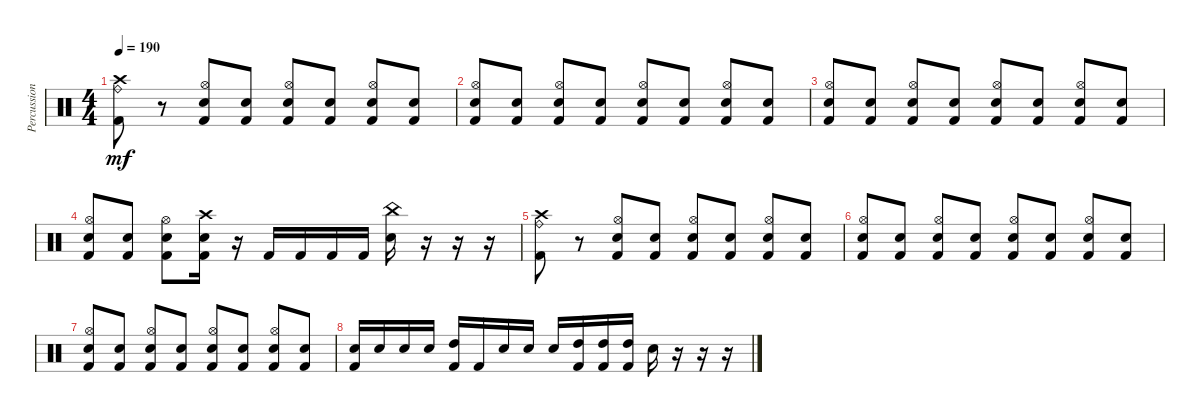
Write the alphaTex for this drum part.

\track ("Percussion" "Percussion") {instrument percussion}
\staff {score}
\articulation defaults
\ts (4 4)
\tempo 190
\clef neutral
\ks c
("Crash high (hit)" "Ride (bell)" "Kick (hit) 2").8{dy mf} r.8 ("Hi-Hat (open)" "Electric Snare (hit)" "Kick (hit) 2").8 ("Electric Snare (hit)" "Kick (hit) 2").8 ("Hi-Hat (open)" "Electric Snare (hit)" "Kick (hit) 2").8 ("Electric Snare (hit)" "Kick (hit) 2").8 ("Hi-Hat (open)" "Electric Snare (hit)" "Kick (hit) 2").8 ("Electric Snare (hit)" "Kick (hit) 2").8 |
("Hi-Hat (open)" "Electric Snare (hit)" "Kick (hit) 2").8 ("Electric Snare (hit)" "Kick (hit) 2").8 ("Hi-Hat (open)" "Electric Snare (hit)" "Kick (hit) 2").8 ("Electric Snare (hit)" "Kick (hit) 2").8 ("Hi-Hat (open)" "Electric Snare (hit)" "Kick (hit) 2").8 ("Electric Snare (hit)" "Kick (hit) 2").8 ("Hi-Hat (open)" "Electric Snare (hit)" "Kick (hit) 2").8 ("Electric Snare (hit)" "Kick (hit) 2").8 |
("Hi-Hat (open)" "Electric Snare (hit)" "Kick (hit) 2").8 ("Electric Snare (hit)" "Kick (hit) 2").8 ("Hi-Hat (open)" "Electric Snare (hit)" "Kick (hit) 2").8 ("Electric Snare (hit)" "Kick (hit) 2").8 ("Hi-Hat (open)" "Electric Snare (hit)" "Kick (hit) 2").8 ("Electric Snare (hit)" "Kick (hit) 2").8 ("Hi-Hat (open)" "Electric Snare (hit)" "Kick (hit) 2").8 ("Electric Snare (hit)" "Kick (hit) 2").8 |
("Hi-Hat (open)" "Electric Snare (hit)" "Kick (hit) 2").8 ("Electric Snare (hit)" "Kick (hit) 2").8 ("Hi-Hat (open)" "Electric Snare (hit)" "Kick (hit) 2").8 ("Crash high (hit)" "Electric Snare (hit)" "Kick (hit) 2").16 r.16 "Kick (hit) 2".16 "Kick (hit) 2".16 "Kick (hit) 2".16 "Kick (hit) 2".16 ("China (hit)" "Electric Snare (hit)").16 r.16 r.16 r.16 |
("Crash high (hit)" "Ride (bell)" "Kick (hit) 2").8 r.8 ("Hi-Hat (open)" "Electric Snare (hit)" "Kick (hit) 2").8 ("Electric Snare (hit)" "Kick (hit) 2").8 ("Hi-Hat (open)" "Electric Snare (hit)" "Kick (hit) 2").8 ("Electric Snare (hit)" "Kick (hit) 2").8 ("Hi-Hat (open)" "Electric Snare (hit)" "Kick (hit) 2").8 ("Electric Snare (hit)" "Kick (hit) 2").8 |
("Hi-Hat (open)" "Electric Snare (hit)" "Kick (hit) 2").8 ("Electric Snare (hit)" "Kick (hit) 2").8 ("Hi-Hat (open)" "Electric Snare (hit)" "Kick (hit) 2").8 ("Electric Snare (hit)" "Kick (hit) 2").8 ("Hi-Hat (open)" "Electric Snare (hit)" "Kick (hit) 2").8 ("Electric Snare (hit)" "Kick (hit) 2").8 ("Hi-Hat (open)" "Electric Snare (hit)" "Kick (hit) 2").8 ("Electric Snare (hit)" "Kick (hit) 2").8 |
("Hi-Hat (open)" "Electric Snare (hit)" "Kick (hit) 2").8 ("Electric Snare (hit)" "Kick (hit) 2").8 ("Hi-Hat (open)" "Electric Snare (hit)" "Kick (hit) 2").8 ("Electric Snare (hit)" "Kick (hit) 2").8 ("Hi-Hat (open)" "Electric Snare (hit)" "Kick (hit) 2").8 ("Electric Snare (hit)" "Kick (hit) 2").8 ("Hi-Hat (open)" "Electric Snare (hit)" "Kick (hit) 2").8 ("Electric Snare (hit)" "Kick (hit) 2").8 |
("Snare (hit) 2" "Kick (hit) 2").16 "Snare (hit) 2".16 "Snare (hit) 2".16 "Snare (hit) 2".16 ("High Tom (hit)" "Kick (hit) 2").16 "Kick (hit) 2".16 "Snare (hit) 2".16 "Snare (hit) 2".16 "Snare (hit) 2".16 ("High Tom (hit)" "Kick (hit) 2").16 ("High Tom (hit)" "Kick (hit) 2").16 ("High Tom (hit)" "Kick (hit) 2").16 "Snare (hit) 2".16 r.16 r.16 r.16
